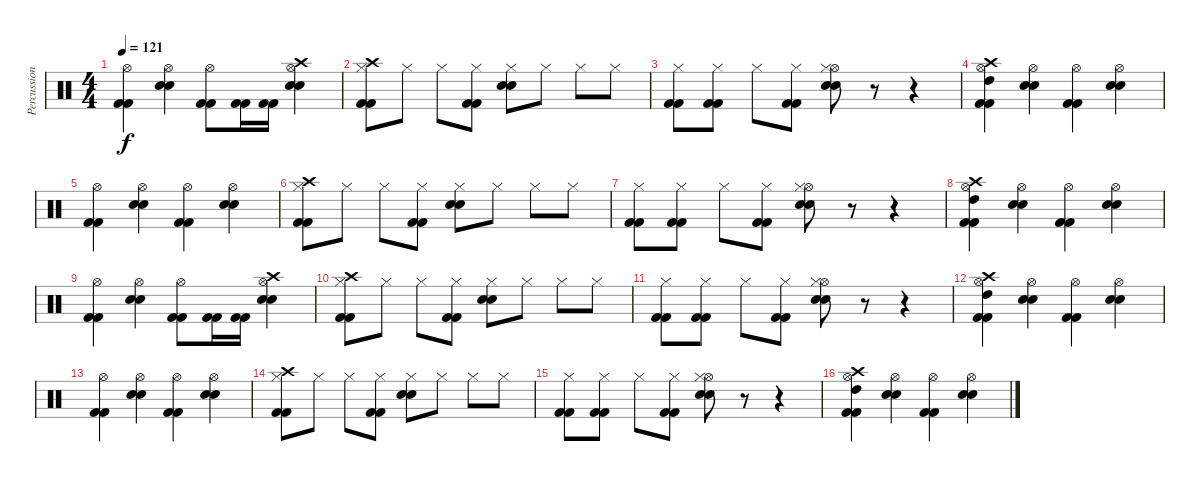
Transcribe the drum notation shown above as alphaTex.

\track ("Percussion" "Percussion") {instrument percussion}
\staff {score}
\articulation defaults
\ts (4 4)
\tempo 121
\clef neutral
\ks c
("Hi-Hat (open)" "Kick (hit) 2" "Kick (hit) 2").4{dy f} ("Hi-Hat (open)" "Electric Snare (hit)" "Electric Snare (hit)").4 ("Hi-Hat (open)" "Kick (hit) 2" "Kick (hit) 2").8 ("Kick (hit) 2" "Kick (hit) 2").16 ("Kick (hit) 2" "Kick (hit) 2").16 ("Crash high (hit)" "Hi-Hat (open)" "Electric Snare (hit)" "Electric Snare (hit)").4 |
("Crash high (hit)" "Hi-Hat (closed)" "Kick (hit) 2" "Kick (hit) 2").8 "Hi-Hat (closed)".8 "Hi-Hat (closed)".8 ("Hi-Hat (closed)" "Kick (hit) 2" "Kick (hit) 2").8 ("Hi-Hat (closed)" "Electric Snare (hit)" "Electric Snare (hit)").8 "Hi-Hat (closed)".8 "Hi-Hat (closed)".8 "Hi-Hat (closed)".8 |
("Hi-Hat (closed)" "Kick (hit) 2" "Kick (hit) 2").8 ("Hi-Hat (closed)" "Kick (hit) 2" "Kick (hit) 2").8 "Hi-Hat (closed)".8 ("Hi-Hat (closed)" "Kick (hit) 2" "Kick (hit) 2").8 ("Hi-Hat (open)" "Hi-Hat (closed)" "Electric Snare (hit)" "Electric Snare (hit)").8 r.8 r.4 |
("Crash high (hit)" "High Tom (hit)" "Hi-Hat (open)" "Kick (hit) 2" "Kick (hit) 2").4 ("Hi-Hat (open)" "Electric Snare (hit)" "Electric Snare (hit)").4 ("Hi-Hat (open)" "Kick (hit) 2" "Kick (hit) 2").4 ("Hi-Hat (open)" "Electric Snare (hit)" "Electric Snare (hit)").4 |
("Hi-Hat (open)" "Kick (hit) 2" "Kick (hit) 2").4 ("Hi-Hat (open)" "Electric Snare (hit)" "Electric Snare (hit)").4 ("Hi-Hat (open)" "Kick (hit) 2" "Kick (hit) 2").4 ("Hi-Hat (open)" "Electric Snare (hit)" "Electric Snare (hit)").4 |
("Crash high (hit)" "Hi-Hat (closed)" "Kick (hit) 2" "Kick (hit) 2").8 "Hi-Hat (closed)".8 "Hi-Hat (closed)".8 ("Hi-Hat (closed)" "Kick (hit) 2" "Kick (hit) 2").8 ("Hi-Hat (closed)" "Electric Snare (hit)" "Electric Snare (hit)").8 "Hi-Hat (closed)".8 "Hi-Hat (closed)".8 "Hi-Hat (closed)".8 |
("Hi-Hat (closed)" "Kick (hit) 2" "Kick (hit) 2").8 ("Hi-Hat (closed)" "Kick (hit) 2" "Kick (hit) 2").8 "Hi-Hat (closed)".8 ("Hi-Hat (closed)" "Kick (hit) 2" "Kick (hit) 2").8 ("Hi-Hat (open)" "Hi-Hat (closed)" "Electric Snare (hit)" "Electric Snare (hit)").8 r.8 r.4 |
("Crash high (hit)" "High Tom (hit)" "Hi-Hat (open)" "Kick (hit) 2" "Kick (hit) 2").4 ("Hi-Hat (open)" "Electric Snare (hit)" "Electric Snare (hit)").4 ("Hi-Hat (open)" "Kick (hit) 2" "Kick (hit) 2").4 ("Hi-Hat (open)" "Electric Snare (hit)" "Electric Snare (hit)").4 |
("Hi-Hat (open)" "Kick (hit) 2" "Kick (hit) 2").4 ("Hi-Hat (open)" "Electric Snare (hit)" "Electric Snare (hit)").4 ("Hi-Hat (open)" "Kick (hit) 2" "Kick (hit) 2").8 ("Kick (hit) 2" "Kick (hit) 2").16 ("Kick (hit) 2" "Kick (hit) 2").16 ("Crash high (hit)" "Hi-Hat (open)" "Electric Snare (hit)" "Electric Snare (hit)").4 |
("Crash high (hit)" "Hi-Hat (closed)" "Kick (hit) 2" "Kick (hit) 2").8 "Hi-Hat (closed)".8 "Hi-Hat (closed)".8 ("Hi-Hat (closed)" "Kick (hit) 2" "Kick (hit) 2").8 ("Hi-Hat (closed)" "Electric Snare (hit)" "Electric Snare (hit)").8 "Hi-Hat (closed)".8 "Hi-Hat (closed)".8 "Hi-Hat (closed)".8 |
("Hi-Hat (closed)" "Kick (hit) 2" "Kick (hit) 2").8 ("Hi-Hat (closed)" "Kick (hit) 2" "Kick (hit) 2").8 "Hi-Hat (closed)".8 ("Hi-Hat (closed)" "Kick (hit) 2" "Kick (hit) 2").8 ("Hi-Hat (open)" "Hi-Hat (closed)" "Electric Snare (hit)" "Electric Snare (hit)").8 r.8 r.4 |
("Crash high (hit)" "High Tom (hit)" "Hi-Hat (open)" "Kick (hit) 2" "Kick (hit) 2").4 ("Hi-Hat (open)" "Electric Snare (hit)" "Electric Snare (hit)").4 ("Hi-Hat (open)" "Kick (hit) 2" "Kick (hit) 2").4 ("Hi-Hat (open)" "Electric Snare (hit)" "Electric Snare (hit)").4 |
("Hi-Hat (open)" "Kick (hit) 2" "Kick (hit) 2").4 ("Hi-Hat (open)" "Electric Snare (hit)" "Electric Snare (hit)").4 ("Hi-Hat (open)" "Kick (hit) 2" "Kick (hit) 2").4 ("Hi-Hat (open)" "Electric Snare (hit)" "Electric Snare (hit)").4 |
("Crash high (hit)" "Hi-Hat (closed)" "Kick (hit) 2" "Kick (hit) 2").8 "Hi-Hat (closed)".8 "Hi-Hat (closed)".8 ("Hi-Hat (closed)" "Kick (hit) 2" "Kick (hit) 2").8 ("Hi-Hat (closed)" "Electric Snare (hit)" "Electric Snare (hit)").8 "Hi-Hat (closed)".8 "Hi-Hat (closed)".8 "Hi-Hat (closed)".8 |
("Hi-Hat (closed)" "Kick (hit) 2" "Kick (hit) 2").8 ("Hi-Hat (closed)" "Kick (hit) 2" "Kick (hit) 2").8 "Hi-Hat (closed)".8 ("Hi-Hat (closed)" "Kick (hit) 2" "Kick (hit) 2").8 ("Hi-Hat (open)" "Hi-Hat (closed)" "Electric Snare (hit)" "Electric Snare (hit)").8 r.8 r.4 |
("Crash high (hit)" "High Tom (hit)" "Hi-Hat (open)" "Kick (hit) 2" "Kick (hit) 2").4 ("Hi-Hat (open)" "Electric Snare (hit)" "Electric Snare (hit)").4 ("Hi-Hat (open)" "Kick (hit) 2" "Kick (hit) 2").4 ("Hi-Hat (open)" "Electric Snare (hit)" "Electric Snare (hit)").4
